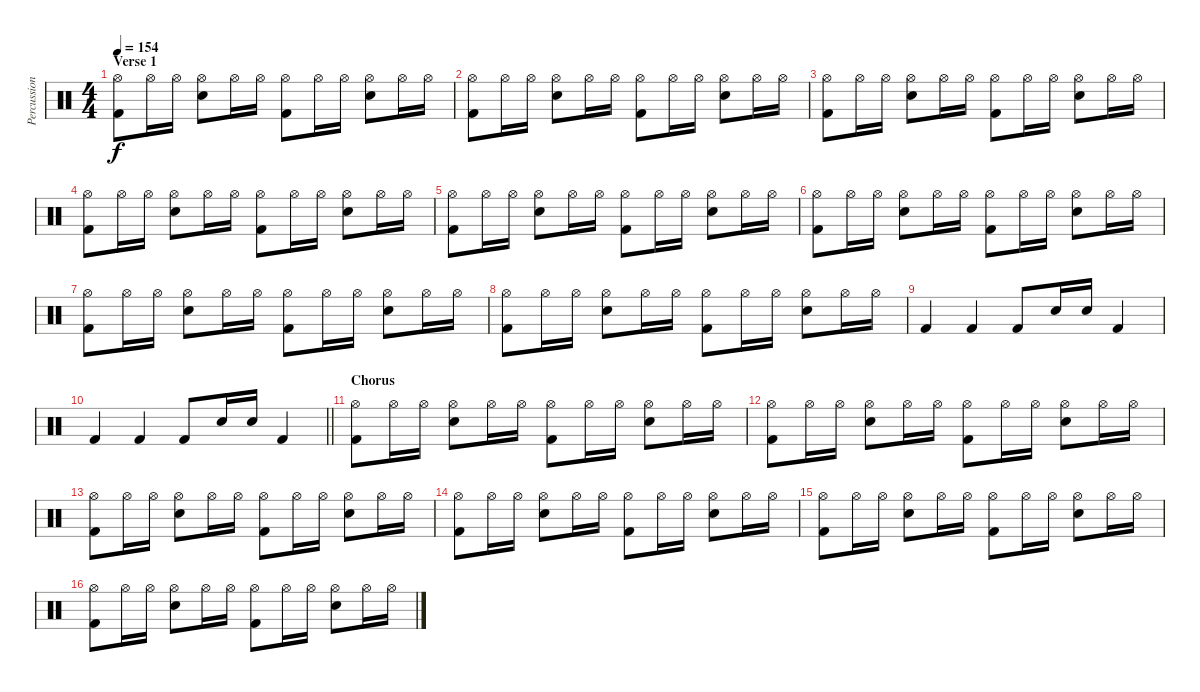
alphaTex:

\track ("Percussion" "Percussion") {instrument percussion}
\staff {score}
\articulation defaults
\ts (4 4)
\section ("" "Verse 1")
\tempo 154
\clef neutral
\ks c
("Hi-Hat (open)" "Kick (hit) 2").8{dy f} "Hi-Hat (open)".16 "Hi-Hat (open)".16 ("Hi-Hat (open)" "Snare (hit) 2").8 "Hi-Hat (open)".16 "Hi-Hat (open)".16 ("Hi-Hat (open)" "Kick (hit) 2").8 "Hi-Hat (open)".16 "Hi-Hat (open)".16 ("Hi-Hat (open)" "Snare (hit) 2").8 "Hi-Hat (open)".16 "Hi-Hat (open)".16 |
("Hi-Hat (open)" "Kick (hit) 2").8 "Hi-Hat (open)".16 "Hi-Hat (open)".16 ("Hi-Hat (open)" "Snare (hit) 2").8 "Hi-Hat (open)".16 "Hi-Hat (open)".16 ("Hi-Hat (open)" "Kick (hit) 2").8 "Hi-Hat (open)".16 "Hi-Hat (open)".16 ("Hi-Hat (open)" "Snare (hit) 2").8 "Hi-Hat (open)".16 "Hi-Hat (open)".16 |
("Hi-Hat (open)" "Kick (hit) 2").8 "Hi-Hat (open)".16 "Hi-Hat (open)".16 ("Hi-Hat (open)" "Snare (hit) 2").8 "Hi-Hat (open)".16 "Hi-Hat (open)".16 ("Hi-Hat (open)" "Kick (hit) 2").8 "Hi-Hat (open)".16 "Hi-Hat (open)".16 ("Hi-Hat (open)" "Snare (hit) 2").8 "Hi-Hat (open)".16 "Hi-Hat (open)".16 |
("Hi-Hat (open)" "Kick (hit) 2").8 "Hi-Hat (open)".16 "Hi-Hat (open)".16 ("Hi-Hat (open)" "Snare (hit) 2").8 "Hi-Hat (open)".16 "Hi-Hat (open)".16 ("Hi-Hat (open)" "Kick (hit) 2").8 "Hi-Hat (open)".16 "Hi-Hat (open)".16 ("Hi-Hat (open)" "Snare (hit) 2").8 "Hi-Hat (open)".16 "Hi-Hat (open)".16 |
("Hi-Hat (open)" "Kick (hit) 2").8 "Hi-Hat (open)".16 "Hi-Hat (open)".16 ("Hi-Hat (open)" "Snare (hit) 2").8 "Hi-Hat (open)".16 "Hi-Hat (open)".16 ("Hi-Hat (open)" "Kick (hit) 2").8 "Hi-Hat (open)".16 "Hi-Hat (open)".16 ("Hi-Hat (open)" "Snare (hit) 2").8 "Hi-Hat (open)".16 "Hi-Hat (open)".16 |
("Hi-Hat (open)" "Kick (hit) 2").8 "Hi-Hat (open)".16 "Hi-Hat (open)".16 ("Hi-Hat (open)" "Snare (hit) 2").8 "Hi-Hat (open)".16 "Hi-Hat (open)".16 ("Hi-Hat (open)" "Kick (hit) 2").8 "Hi-Hat (open)".16 "Hi-Hat (open)".16 ("Hi-Hat (open)" "Snare (hit) 2").8 "Hi-Hat (open)".16 "Hi-Hat (open)".16 |
("Hi-Hat (open)" "Kick (hit) 2").8 "Hi-Hat (open)".16 "Hi-Hat (open)".16 ("Hi-Hat (open)" "Snare (hit) 2").8 "Hi-Hat (open)".16 "Hi-Hat (open)".16 ("Hi-Hat (open)" "Kick (hit) 2").8 "Hi-Hat (open)".16 "Hi-Hat (open)".16 ("Hi-Hat (open)" "Snare (hit) 2").8 "Hi-Hat (open)".16 "Hi-Hat (open)".16 |
("Hi-Hat (open)" "Kick (hit) 2").8 "Hi-Hat (open)".16 "Hi-Hat (open)".16 ("Hi-Hat (open)" "Snare (hit) 2").8 "Hi-Hat (open)".16 "Hi-Hat (open)".16 ("Hi-Hat (open)" "Kick (hit) 2").8 "Hi-Hat (open)".16 "Hi-Hat (open)".16 ("Hi-Hat (open)" "Snare (hit) 2").8 "Hi-Hat (open)".16 "Hi-Hat (open)".16 |
"Kick (hit) 2".4 "Kick (hit) 2".4 "Kick (hit) 2".8 "Snare (hit) 2".16 "Snare (hit) 2".16 "Kick (hit) 2".4 |
\barLineRight lightlight "Kick (hit) 2".4 "Kick (hit) 2".4 "Kick (hit) 2".8 "Snare (hit) 2".16 "Snare (hit) 2".16 "Kick (hit) 2".4
|
\section ("" "Chorus")
("Hi-Hat (open)" "Kick (hit) 2").8 "Hi-Hat (open)".16 "Hi-Hat (open)".16 ("Hi-Hat (open)" "Snare (hit) 2").8 "Hi-Hat (open)".16 "Hi-Hat (open)".16 ("Hi-Hat (open)" "Kick (hit) 2").8 "Hi-Hat (open)".16 "Hi-Hat (open)".16 ("Hi-Hat (open)" "Snare (hit) 2").8 "Hi-Hat (open)".16 "Hi-Hat (open)".16 |
("Hi-Hat (open)" "Kick (hit) 2").8 "Hi-Hat (open)".16 "Hi-Hat (open)".16 ("Hi-Hat (open)" "Snare (hit) 2").8 "Hi-Hat (open)".16 "Hi-Hat (open)".16 ("Hi-Hat (open)" "Kick (hit) 2").8 "Hi-Hat (open)".16 "Hi-Hat (open)".16 ("Hi-Hat (open)" "Snare (hit) 2").8 "Hi-Hat (open)".16 "Hi-Hat (open)".16 |
("Hi-Hat (open)" "Kick (hit) 2").8 "Hi-Hat (open)".16 "Hi-Hat (open)".16 ("Hi-Hat (open)" "Snare (hit) 2").8 "Hi-Hat (open)".16 "Hi-Hat (open)".16 ("Hi-Hat (open)" "Kick (hit) 2").8 "Hi-Hat (open)".16 "Hi-Hat (open)".16 ("Hi-Hat (open)" "Snare (hit) 2").8 "Hi-Hat (open)".16 "Hi-Hat (open)".16 |
("Hi-Hat (open)" "Kick (hit) 2").8 "Hi-Hat (open)".16 "Hi-Hat (open)".16 ("Hi-Hat (open)" "Snare (hit) 2").8 "Hi-Hat (open)".16 "Hi-Hat (open)".16 ("Hi-Hat (open)" "Kick (hit) 2").8 "Hi-Hat (open)".16 "Hi-Hat (open)".16 ("Hi-Hat (open)" "Snare (hit) 2").8 "Hi-Hat (open)".16 "Hi-Hat (open)".16 |
("Hi-Hat (open)" "Kick (hit) 2").8 "Hi-Hat (open)".16 "Hi-Hat (open)".16 ("Hi-Hat (open)" "Snare (hit) 2").8 "Hi-Hat (open)".16 "Hi-Hat (open)".16 ("Hi-Hat (open)" "Kick (hit) 2").8 "Hi-Hat (open)".16 "Hi-Hat (open)".16 ("Hi-Hat (open)" "Snare (hit) 2").8 "Hi-Hat (open)".16 "Hi-Hat (open)".16 |
("Hi-Hat (open)" "Kick (hit) 2").8 "Hi-Hat (open)".16 "Hi-Hat (open)".16 ("Hi-Hat (open)" "Snare (hit) 2").8 "Hi-Hat (open)".16 "Hi-Hat (open)".16 ("Hi-Hat (open)" "Kick (hit) 2").8 "Hi-Hat (open)".16 "Hi-Hat (open)".16 ("Hi-Hat (open)" "Snare (hit) 2").8 "Hi-Hat (open)".16 "Hi-Hat (open)".16
